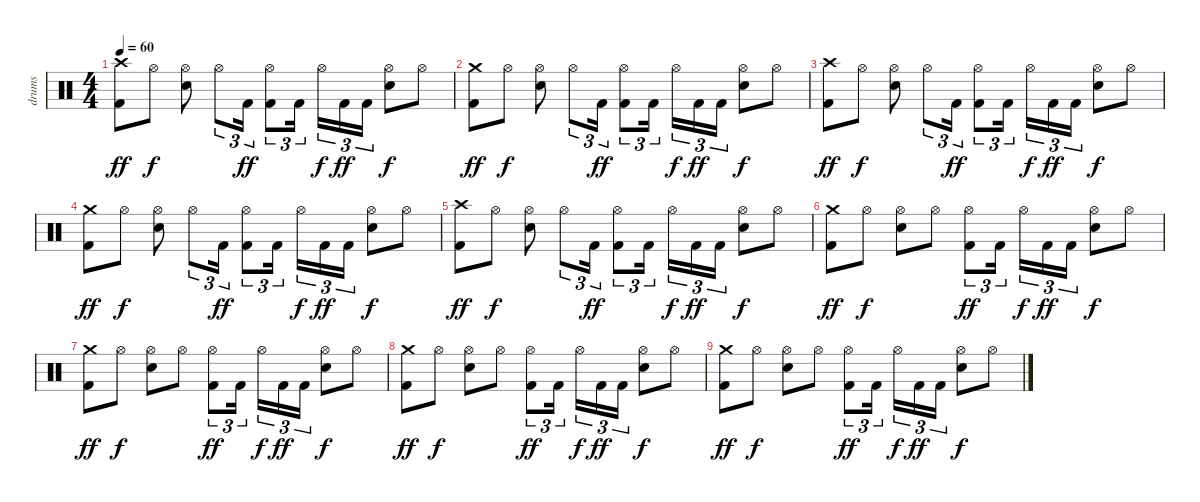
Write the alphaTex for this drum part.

\track ("drums" "drums") {instrument percussion}
\staff {score}
\articulation defaults
\ts (4 4)
\tempo 60
\clef neutral
\ks c
("Crash high (hit)" "Kick (hit) 2").8{dy ff} "Hi-Hat (open)".8{dy f} ("Hi-Hat (open)" "Electric Snare (hit)").8 "Hi-Hat (open)".8{tu (3 2)} "Kick (hit) 2".16{tu (3 2) dy ff} ("Hi-Hat (open)" "Kick (hit) 2").8{tu (3 2)} "Kick (hit) 2".16{tu (3 2)} "Hi-Hat (open)".16{tu (3 2) dy f} "Kick (hit) 2".16{tu (3 2) dy ff} "Kick (hit) 2".16{tu (3 2)} ("Hi-Hat (open)" "Electric Snare (hit)").8{dy f} "Hi-Hat (open)".8 |
("Crash medium (hit)" "Kick (hit) 2").8{dy ff} "Hi-Hat (open)".8{dy f} ("Hi-Hat (open)" "Electric Snare (hit)").8 "Hi-Hat (open)".8{tu (3 2)} "Kick (hit) 2".16{tu (3 2) dy ff} ("Hi-Hat (open)" "Kick (hit) 2").8{tu (3 2)} "Kick (hit) 2".16{tu (3 2)} "Hi-Hat (open)".16{tu (3 2) dy f} "Kick (hit) 2".16{tu (3 2) dy ff} "Kick (hit) 2".16{tu (3 2)} ("Hi-Hat (open)" "Electric Snare (hit)").8{dy f} "Hi-Hat (open)".8 |
("Crash high (hit)" "Kick (hit) 2").8{dy ff} "Hi-Hat (open)".8{dy f} ("Hi-Hat (open)" "Electric Snare (hit)").8 "Hi-Hat (open)".8{tu (3 2)} "Kick (hit) 2".16{tu (3 2) dy ff} ("Hi-Hat (open)" "Kick (hit) 2").8{tu (3 2)} "Kick (hit) 2".16{tu (3 2)} "Hi-Hat (open)".16{tu (3 2) dy f} "Kick (hit) 2".16{tu (3 2) dy ff} "Kick (hit) 2".16{tu (3 2)} ("Hi-Hat (open)" "Electric Snare (hit)").8{dy f} "Hi-Hat (open)".8 |
("Crash medium (hit)" "Kick (hit) 2").8{dy ff} "Hi-Hat (open)".8{dy f} ("Hi-Hat (open)" "Electric Snare (hit)").8 "Hi-Hat (open)".8{tu (3 2)} "Kick (hit) 2".16{tu (3 2) dy ff} ("Hi-Hat (open)" "Kick (hit) 2").8{tu (3 2)} "Kick (hit) 2".16{tu (3 2)} "Hi-Hat (open)".16{tu (3 2) dy f} "Kick (hit) 2".16{tu (3 2) dy ff} "Kick (hit) 2".16{tu (3 2)} ("Hi-Hat (open)" "Electric Snare (hit)").8{dy f} "Hi-Hat (open)".8 |
("Crash high (hit)" "Kick (hit) 2").8{dy ff} "Hi-Hat (open)".8{dy f} ("Hi-Hat (open)" "Electric Snare (hit)").8 "Hi-Hat (open)".8{tu (3 2)} "Kick (hit) 2".16{tu (3 2) dy ff} ("Hi-Hat (open)" "Kick (hit) 2").8{tu (3 2)} "Kick (hit) 2".16{tu (3 2)} "Hi-Hat (open)".16{tu (3 2) dy f} "Kick (hit) 2".16{tu (3 2) dy ff} "Kick (hit) 2".16{tu (3 2)} ("Hi-Hat (open)" "Electric Snare (hit)").8{dy f} "Hi-Hat (open)".8 |
("Crash medium (hit)" "Kick (hit) 2").8{dy ff} "Hi-Hat (open)".8{dy f} ("Hi-Hat (open)" "Electric Snare (hit)").8 "Hi-Hat (open)".8 ("Hi-Hat (open)" "Kick (hit) 2").8{tu (3 2) dy ff} "Kick (hit) 2".16{tu (3 2)} "Hi-Hat (open)".16{tu (3 2) dy f} "Kick (hit) 2".16{tu (3 2) dy ff} "Kick (hit) 2".16{tu (3 2)} ("Hi-Hat (open)" "Electric Snare (hit)").8{dy f} "Hi-Hat (open)".8 |
("Crash medium (hit)" "Kick (hit) 2").8{dy ff} "Hi-Hat (open)".8{dy f} ("Hi-Hat (open)" "Electric Snare (hit)").8 "Hi-Hat (open)".8 ("Hi-Hat (open)" "Kick (hit) 2").8{tu (3 2) dy ff} "Kick (hit) 2".16{tu (3 2)} "Hi-Hat (open)".16{tu (3 2) dy f} "Kick (hit) 2".16{tu (3 2) dy ff} "Kick (hit) 2".16{tu (3 2)} ("Hi-Hat (open)" "Electric Snare (hit)").8{dy f} "Hi-Hat (open)".8 |
("Crash medium (hit)" "Kick (hit) 2").8{dy ff} "Hi-Hat (open)".8{dy f} ("Hi-Hat (open)" "Electric Snare (hit)").8 "Hi-Hat (open)".8 ("Hi-Hat (open)" "Kick (hit) 2").8{tu (3 2) dy ff} "Kick (hit) 2".16{tu (3 2)} "Hi-Hat (open)".16{tu (3 2) dy f} "Kick (hit) 2".16{tu (3 2) dy ff} "Kick (hit) 2".16{tu (3 2)} ("Hi-Hat (open)" "Electric Snare (hit)").8{dy f} "Hi-Hat (open)".8 |
("Crash medium (hit)" "Kick (hit) 2").8{dy ff} "Hi-Hat (open)".8{dy f} ("Hi-Hat (open)" "Electric Snare (hit)").8 "Hi-Hat (open)".8 ("Hi-Hat (open)" "Kick (hit) 2").8{tu (3 2) dy ff} "Kick (hit) 2".16{tu (3 2)} "Hi-Hat (open)".16{tu (3 2) dy f} "Kick (hit) 2".16{tu (3 2) dy ff} "Kick (hit) 2".16{tu (3 2)} ("Hi-Hat (open)" "Electric Snare (hit)").8{dy f} "Hi-Hat (open)".8
